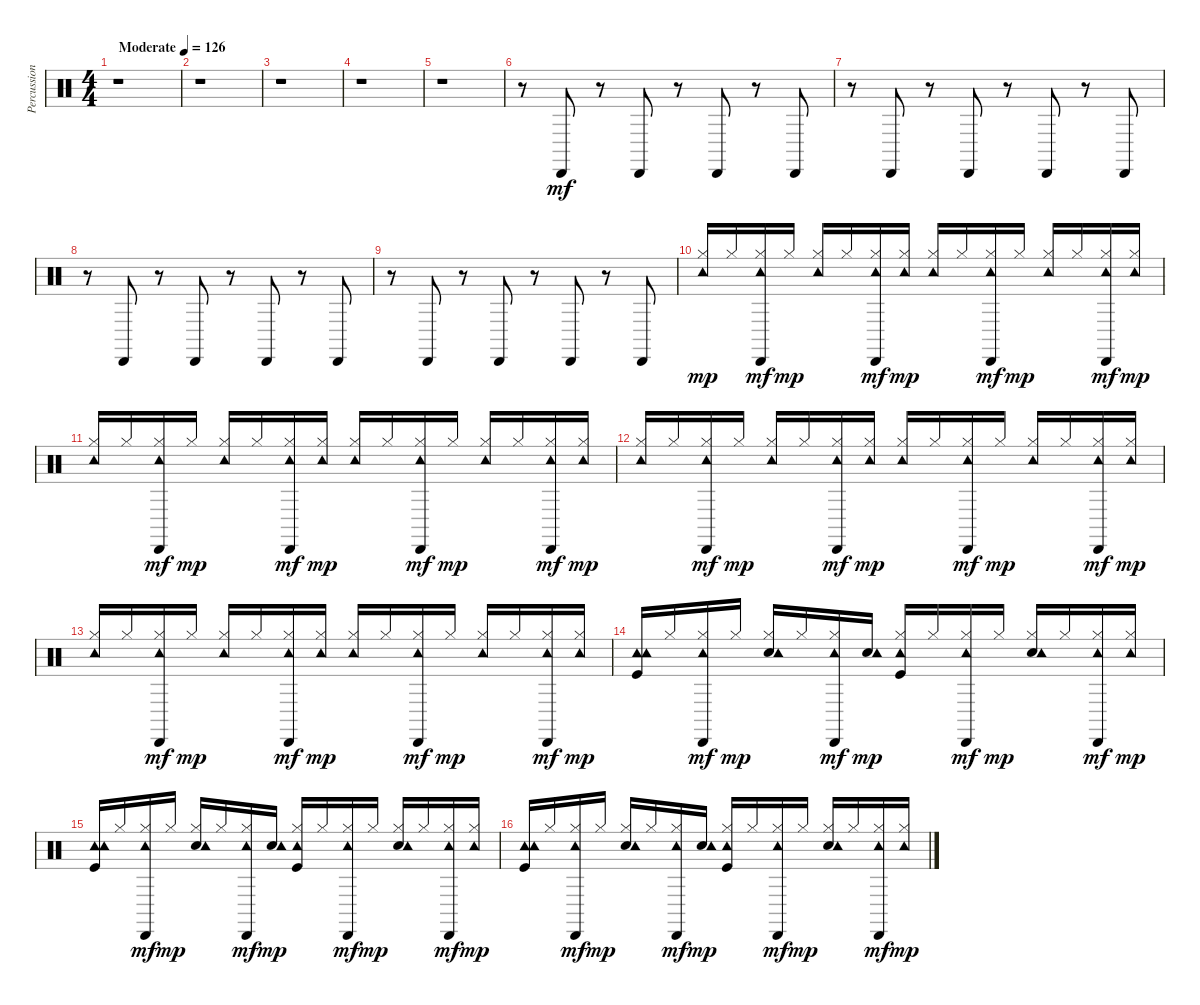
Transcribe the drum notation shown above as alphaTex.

\track ("Percussion" "Percussion") {instrument percussion}
\staff {score}
\articulation defaults
\ts (4 4)
\tempo (126 "Moderate")
\clef neutral
\ks c
r.1{dy mf} |
r.1 |
r.1 |
r.1 |
r.1 |
r.8 "Cabasa (hit)".8 r.8 "Cabasa (hit)".8 r.8 "Cabasa (hit)".8 r.8 "Cabasa (hit)".8 |
r.8 "Cabasa (hit)".8 r.8 "Cabasa (hit)".8 r.8 "Cabasa (hit)".8 r.8 "Cabasa (hit)".8 |
r.8 "Cabasa (hit)".8 r.8 "Cabasa (hit)".8 r.8 "Cabasa (hit)".8 r.8 "Cabasa (hit)".8 |
r.8 "Cabasa (hit)".8 r.8 "Cabasa (hit)".8 r.8 "Cabasa (hit)".8 r.8 "Cabasa (hit)".8 |
("Hi-Hat (closed)" "Tambourine (hit)").16{dy mp} "Hi-Hat (closed)".16 ("Hi-Hat (closed)" "Tambourine (hit)" "Cabasa (hit)").16{dy mf} "Hi-Hat (closed)".16{dy mp} ("Hi-Hat (closed)" "Tambourine (hit)").16 "Hi-Hat (closed)".16 ("Hi-Hat (closed)" "Tambourine (hit)" "Cabasa (hit)").16{dy mf} ("Hi-Hat (closed)" "Tambourine (hit)").16{dy mp} ("Hi-Hat (closed)" "Tambourine (hit)").16 "Hi-Hat (closed)".16 ("Hi-Hat (closed)" "Tambourine (hit)" "Cabasa (hit)").16{dy mf} "Hi-Hat (closed)".16{dy mp} ("Hi-Hat (closed)" "Tambourine (hit)").16 "Hi-Hat (closed)".16 ("Hi-Hat (closed)" "Tambourine (hit)" "Cabasa (hit)").16{dy mf} ("Hi-Hat (closed)" "Tambourine (hit)").16{dy mp} |
("Hi-Hat (closed)" "Tambourine (hit)").16 "Hi-Hat (closed)".16 ("Hi-Hat (closed)" "Tambourine (hit)" "Cabasa (hit)").16{dy mf} "Hi-Hat (closed)".16{dy mp} ("Hi-Hat (closed)" "Tambourine (hit)").16 "Hi-Hat (closed)".16 ("Hi-Hat (closed)" "Tambourine (hit)" "Cabasa (hit)").16{dy mf} ("Hi-Hat (closed)" "Tambourine (hit)").16{dy mp} ("Hi-Hat (closed)" "Tambourine (hit)").16 "Hi-Hat (closed)".16 ("Hi-Hat (closed)" "Tambourine (hit)" "Cabasa (hit)").16{dy mf} "Hi-Hat (closed)".16{dy mp} ("Hi-Hat (closed)" "Tambourine (hit)").16 "Hi-Hat (closed)".16 ("Hi-Hat (closed)" "Tambourine (hit)" "Cabasa (hit)").16{dy mf} ("Hi-Hat (closed)" "Tambourine (hit)").16{dy mp} |
("Hi-Hat (closed)" "Tambourine (hit)").16 "Hi-Hat (closed)".16 ("Hi-Hat (closed)" "Tambourine (hit)" "Cabasa (hit)").16{dy mf} "Hi-Hat (closed)".16{dy mp} ("Hi-Hat (closed)" "Tambourine (hit)").16 "Hi-Hat (closed)".16 ("Hi-Hat (closed)" "Tambourine (hit)" "Cabasa (hit)").16{dy mf} ("Hi-Hat (closed)" "Tambourine (hit)").16{dy mp} ("Hi-Hat (closed)" "Tambourine (hit)").16 "Hi-Hat (closed)".16 ("Hi-Hat (closed)" "Tambourine (hit)" "Cabasa (hit)").16{dy mf} "Hi-Hat (closed)".16{dy mp} ("Hi-Hat (closed)" "Tambourine (hit)").16 "Hi-Hat (closed)".16 ("Hi-Hat (closed)" "Tambourine (hit)" "Cabasa (hit)").16{dy mf} ("Hi-Hat (closed)" "Tambourine (hit)").16{dy mp} |
("Hi-Hat (closed)" "Tambourine (hit)").16 "Hi-Hat (closed)".16 ("Hi-Hat (closed)" "Tambourine (hit)" "Cabasa (hit)").16{dy mf} "Hi-Hat (closed)".16{dy mp} ("Hi-Hat (closed)" "Tambourine (hit)").16 "Hi-Hat (closed)".16 ("Hi-Hat (closed)" "Tambourine (hit)" "Cabasa (hit)").16{dy mf} ("Hi-Hat (closed)" "Tambourine (hit)").16{dy mp} ("Hi-Hat (closed)" "Tambourine (hit)").16 "Hi-Hat (closed)".16 ("Hi-Hat (closed)" "Tambourine (hit)" "Cabasa (hit)").16{dy mf} "Hi-Hat (closed)".16{dy mp} ("Hi-Hat (closed)" "Tambourine (hit)").16 "Hi-Hat (closed)".16 ("Hi-Hat (closed)" "Tambourine (hit)" "Cabasa (hit)").16{dy mf} ("Hi-Hat (closed)" "Tambourine (hit)").16{dy mp} |
("Kick (hit)" "Tambourine (hit)" "Tambourine (hit)").16 "Hi-Hat (closed)".16 ("Hi-Hat (closed)" "Tambourine (hit)" "Cabasa (hit)").16{dy mf} "Hi-Hat (closed)".16{dy mp} ("Snare (hit) 2" "Hi-Hat (closed)" "Tambourine (hit)").16 "Hi-Hat (closed)".16 ("Hi-Hat (closed)" "Tambourine (hit)" "Cabasa (hit)").16{dy mf} ("Snare (hit) 2" "Tambourine (hit)").16{dy mp} ("Kick (hit)" "Hi-Hat (closed)" "Tambourine (hit)").16 "Hi-Hat (closed)".16 ("Hi-Hat (closed)" "Tambourine (hit)" "Cabasa (hit)").16{dy mf} "Hi-Hat (closed)".16{dy mp} ("Snare (hit) 2" "Hi-Hat (closed)" "Tambourine (hit)").16 "Hi-Hat (closed)".16 ("Hi-Hat (closed)" "Tambourine (hit)" "Cabasa (hit)").16{dy mf} ("Hi-Hat (closed)" "Tambourine (hit)").16{dy mp} |
("Kick (hit)" "Tambourine (hit)" "Tambourine (hit)").16 "Hi-Hat (closed)".16 ("Hi-Hat (closed)" "Tambourine (hit)" "Cabasa (hit)").16{dy mf} "Hi-Hat (closed)".16{dy mp} ("Snare (hit) 2" "Hi-Hat (closed)" "Tambourine (hit)").16 "Hi-Hat (closed)".16 ("Hi-Hat (closed)" "Tambourine (hit)" "Cabasa (hit)").16{dy mf} ("Snare (hit) 2" "Tambourine (hit)").16{dy mp} ("Kick (hit)" "Hi-Hat (closed)" "Tambourine (hit)").16 "Hi-Hat (closed)".16 ("Hi-Hat (closed)" "Tambourine (hit)" "Cabasa (hit)").16{dy mf} "Hi-Hat (closed)".16{dy mp} ("Snare (hit) 2" "Hi-Hat (closed)" "Tambourine (hit)").16 "Hi-Hat (closed)".16 ("Hi-Hat (closed)" "Tambourine (hit)" "Cabasa (hit)").16{dy mf} ("Hi-Hat (closed)" "Tambourine (hit)").16{dy mp} |
("Kick (hit)" "Tambourine (hit)" "Tambourine (hit)").16 "Hi-Hat (closed)".16 ("Hi-Hat (closed)" "Tambourine (hit)" "Cabasa (hit)").16{dy mf} "Hi-Hat (closed)".16{dy mp} ("Snare (hit) 2" "Hi-Hat (closed)" "Tambourine (hit)").16 "Hi-Hat (closed)".16 ("Hi-Hat (closed)" "Tambourine (hit)" "Cabasa (hit)").16{dy mf} ("Snare (hit) 2" "Tambourine (hit)").16{dy mp} ("Kick (hit)" "Hi-Hat (closed)" "Tambourine (hit)").16 "Hi-Hat (closed)".16 ("Hi-Hat (closed)" "Tambourine (hit)" "Cabasa (hit)").16{dy mf} "Hi-Hat (closed)".16{dy mp} ("Snare (hit) 2" "Hi-Hat (closed)" "Tambourine (hit)").16 "Hi-Hat (closed)".16 ("Hi-Hat (closed)" "Tambourine (hit)" "Cabasa (hit)").16{dy mf} ("Hi-Hat (closed)" "Tambourine (hit)").16{dy mp}
